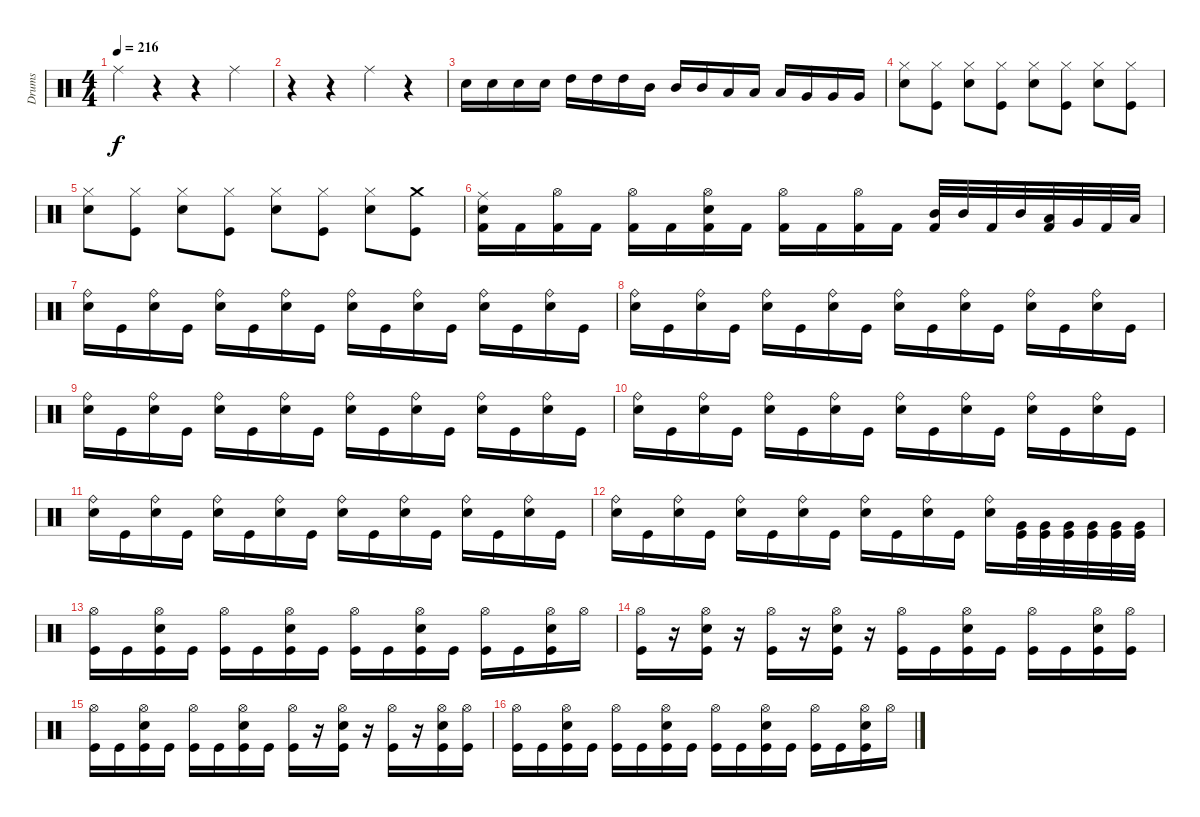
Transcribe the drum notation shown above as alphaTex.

\track ("Drums" "Drums") {instrument percussion}
\staff {score}
\articulation defaults
\ts (4 4)
\tempo 216
\clef neutral
\ks c "Ride (middle)".4{dy f}
r.4 r.4 "Ride (middle)".4 |
r.4 r.4 "Ride (middle)".4 r.4 |
"Electric Snare (hit)".16 "Electric Snare (hit)".16 "Electric Snare (hit)".16 "Electric Snare (hit)".16 "High Tom (hit)".16 "High Tom (hit)".16 "High Tom (hit)".16 "Mid Tom (hit)".16 "Mid Tom (hit)".16 "Mid Tom (hit)".16 "Low Tom (hit)".16 "Low Tom (hit)".16 "Low Tom (hit)".16 "Very Low Tom (hit)".16 "Very Low Tom (hit)".16 "Very Low Tom (hit)".16 |
("Electric Snare (hit)" "Hi-Hat (closed)").8 ("Kick (hit)" "Hi-Hat (closed)").8 ("Electric Snare (hit)" "Hi-Hat (closed)").8 ("Kick (hit)" "Hi-Hat (closed)").8 ("Electric Snare (hit)" "Hi-Hat (closed)").8 ("Kick (hit)" "Hi-Hat (closed)").8 ("Electric Snare (hit)" "Hi-Hat (closed)").8 ("Kick (hit)" "Hi-Hat (closed)").8 |
("Electric Snare (hit)" "Hi-Hat (closed)").8 ("Kick (hit)" "Hi-Hat (closed)").8 ("Electric Snare (hit)" "Hi-Hat (closed)").8 ("Kick (hit)" "Hi-Hat (closed)").8 ("Electric Snare (hit)" "Hi-Hat (closed)").8 ("Kick (hit)" "Hi-Hat (closed)").8 ("Electric Snare (hit)" "Hi-Hat (closed)").8 ("Kick (hit)" "Crash medium (hit)").8 |
("Kick (hit) 2" "Electric Snare (hit)" "Ride (middle)").16 "Kick (hit) 2".16 ("Kick (hit) 2" "Hi-Hat (open)").16 "Kick (hit) 2".16 ("Kick (hit) 2" "Hi-Hat (open)").16 "Kick (hit) 2".16 ("Kick (hit) 2" "Electric Snare (hit)" "Hi-Hat (open)").16 "Kick (hit) 2".16 ("Kick (hit) 2" "Hi-Hat (open)").16 "Kick (hit) 2".16 ("Kick (hit) 2" "Hi-Hat (open)").16 "Kick (hit) 2".16 ("Kick (hit) 2" "Mid Tom (hit)").32 "Mid Tom (hit)".32 "Kick (hit) 2".32 "Mid Tom (hit)".32 ("Kick (hit) 2" "Low Tom (hit)").32 "Very Low Tom (hit)".32 "Kick (hit) 2".32 "Low Floor Tom (hit)".32 |
("Electric Snare (hit)" "Ride (bell)").16 "Kick (hit)".16 ("Electric Snare (hit)" "Ride (bell)").16 "Kick (hit)".16 ("Electric Snare (hit)" "Ride (bell)").16 "Kick (hit)".16 ("Electric Snare (hit)" "Ride (bell)").16 "Kick (hit)".16 ("Electric Snare (hit)" "Ride (bell)").16 "Kick (hit)".16 ("Electric Snare (hit)" "Ride (bell)").16 "Kick (hit)".16 ("Electric Snare (hit)" "Ride (bell)").16 "Kick (hit)".16 ("Electric Snare (hit)" "Ride (bell)").16 "Kick (hit)".16 |
("Electric Snare (hit)" "Ride (bell)").16 "Kick (hit)".16 ("Electric Snare (hit)" "Ride (bell)").16 "Kick (hit)".16 ("Electric Snare (hit)" "Ride (bell)").16 "Kick (hit)".16 ("Electric Snare (hit)" "Ride (bell)").16 "Kick (hit)".16 ("Electric Snare (hit)" "Ride (bell)").16 "Kick (hit)".16 ("Electric Snare (hit)" "Ride (bell)").16 "Kick (hit)".16 ("Electric Snare (hit)" "Ride (bell)").16 "Kick (hit)".16 ("Electric Snare (hit)" "Ride (bell)").16 "Kick (hit)".16 |
("Electric Snare (hit)" "Ride (bell)").16 "Kick (hit)".16 ("Electric Snare (hit)" "Ride (bell)").16 "Kick (hit)".16 ("Electric Snare (hit)" "Ride (bell)").16 "Kick (hit)".16 ("Electric Snare (hit)" "Ride (bell)").16 "Kick (hit)".16 ("Electric Snare (hit)" "Ride (bell)").16 "Kick (hit)".16 ("Electric Snare (hit)" "Ride (bell)").16 "Kick (hit)".16 ("Electric Snare (hit)" "Ride (bell)").16 "Kick (hit)".16 ("Electric Snare (hit)" "Ride (bell)").16 "Kick (hit)".16 |
("Electric Snare (hit)" "Ride (bell)").16 "Kick (hit)".16 ("Electric Snare (hit)" "Ride (bell)").16 "Kick (hit)".16 ("Electric Snare (hit)" "Ride (bell)").16 "Kick (hit)".16 ("Electric Snare (hit)" "Ride (bell)").16 "Kick (hit)".16 ("Electric Snare (hit)" "Ride (bell)").16 "Kick (hit)".16 ("Electric Snare (hit)" "Ride (bell)").16 "Kick (hit)".16 ("Electric Snare (hit)" "Ride (bell)").16 "Kick (hit)".16 ("Electric Snare (hit)" "Ride (bell)").16 "Kick (hit)".16 |
("Electric Snare (hit)" "Ride (bell)").16 "Kick (hit)".16 ("Electric Snare (hit)" "Ride (bell)").16 "Kick (hit)".16 ("Electric Snare (hit)" "Ride (bell)").16 "Kick (hit)".16 ("Electric Snare (hit)" "Ride (bell)").16 "Kick (hit)".16 ("Electric Snare (hit)" "Ride (bell)").16 "Kick (hit)".16 ("Electric Snare (hit)" "Ride (bell)").16 "Kick (hit)".16 ("Electric Snare (hit)" "Ride (bell)").16 "Kick (hit)".16 ("Electric Snare (hit)" "Ride (bell)").16 "Kick (hit)".16 |
("Electric Snare (hit)" "Ride (bell)").16 "Kick (hit)".16 ("Electric Snare (hit)" "Ride (bell)").16 "Kick (hit)".16 ("Electric Snare (hit)" "Ride (bell)").16 "Kick (hit)".16 ("Electric Snare (hit)" "Ride (bell)").16 "Kick (hit)".16 ("Electric Snare (hit)" "Ride (bell)").16 "Kick (hit)".16 ("Electric Snare (hit)" "Ride (bell)").16 "Kick (hit)".16 ("Electric Snare (hit)" "Ride (bell)").16 ("Kick (hit)" "Very Low Tom (hit)").32 ("Kick (hit)" "Very Low Tom (hit)").32 ("Kick (hit)" "Very Low Tom (hit)").32 ("Kick (hit)" "Very Low Tom (hit)").32 ("Kick (hit)" "Very Low Tom (hit)").32 ("Kick (hit)" "Very Low Tom (hit)").32 |
("Hi-Hat (open)" "Kick (hit)").16 "Kick (hit)".16 ("Hi-Hat (open)" "Snare (hit) 2" "Kick (hit)").16 "Kick (hit)".16 ("Hi-Hat (open)" "Kick (hit)").16 "Kick (hit)".16 ("Hi-Hat (open)" "Snare (hit) 2" "Kick (hit)").16 "Kick (hit)".16 ("Hi-Hat (open)" "Kick (hit)").16 "Kick (hit)".16 ("Hi-Hat (open)" "Snare (hit) 2" "Kick (hit)").16 "Kick (hit)".16 ("Hi-Hat (open)" "Kick (hit)").16 "Kick (hit)".16 ("Hi-Hat (open)" "Snare (hit) 2" "Kick (hit)").16 "Hi-Hat (open)".16 |
("Hi-Hat (open)" "Kick (hit)").16 r.16 ("Hi-Hat (open)" "Snare (hit) 2" "Kick (hit)").16 r.16 ("Hi-Hat (open)" "Kick (hit)").16 r.16 ("Hi-Hat (open)" "Snare (hit) 2" "Kick (hit)").16 r.16 ("Hi-Hat (open)" "Kick (hit)").16 "Kick (hit)".16 ("Hi-Hat (open)" "Snare (hit) 2" "Kick (hit)").16 "Kick (hit)".16 ("Hi-Hat (open)" "Kick (hit)").16 "Kick (hit)".16 ("Hi-Hat (open)" "Snare (hit) 2" "Kick (hit)").16 ("Hi-Hat (open)" "Kick (hit)").16 |
("Hi-Hat (open)" "Kick (hit)").16 "Kick (hit)".16 ("Hi-Hat (open)" "Snare (hit) 2" "Kick (hit)").16 "Kick (hit)".16 ("Hi-Hat (open)" "Kick (hit)").16 "Kick (hit)".16 ("Hi-Hat (open)" "Snare (hit) 2" "Kick (hit)").16 "Kick (hit)".16 ("Hi-Hat (open)" "Kick (hit)").16 r.16 ("Hi-Hat (open)" "Snare (hit) 2" "Kick (hit)").16 r.16 ("Hi-Hat (open)" "Kick (hit)").16 r.16 ("Hi-Hat (open)" "Snare (hit) 2" "Kick (hit)").16 ("Hi-Hat (open)" "Kick (hit)").16 |
("Hi-Hat (open)" "Kick (hit)").16 "Kick (hit)".16 ("Hi-Hat (open)" "Snare (hit) 2" "Kick (hit)").16 "Kick (hit)".16 ("Hi-Hat (open)" "Kick (hit)").16 "Kick (hit)".16 ("Hi-Hat (open)" "Snare (hit) 2" "Kick (hit)").16 "Kick (hit)".16 ("Hi-Hat (open)" "Kick (hit)").16 "Kick (hit)".16 ("Hi-Hat (open)" "Snare (hit) 2" "Kick (hit)").16 "Kick (hit)".16 ("Hi-Hat (open)" "Kick (hit)").16 "Kick (hit)".16 ("Hi-Hat (open)" "Snare (hit) 2" "Kick (hit)").16 "Hi-Hat (open)".16
